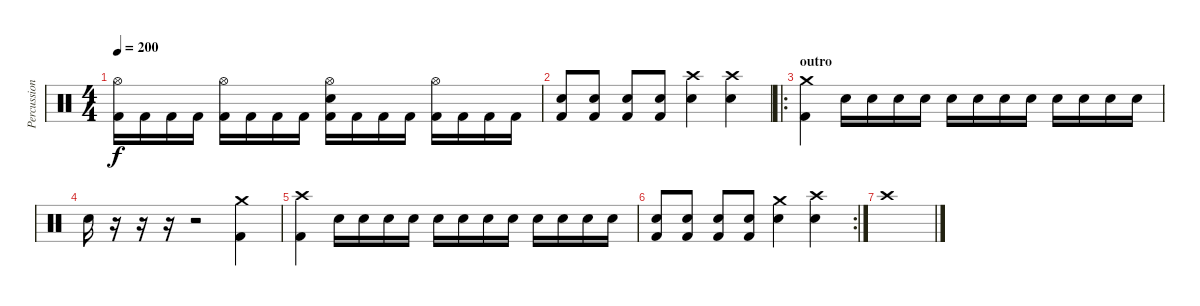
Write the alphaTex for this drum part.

\track ("Percussions" "Percussion") {instrument percussion}
\staff {score}
\articulation defaults
\ts (4 4)
\tempo 200
\clef neutral
\ks c
("Hi-Hat (open)" "Kick (hit) 2").16{dy f} "Kick (hit) 2".16 "Kick (hit) 2".16 "Kick (hit) 2".16 ("Hi-Hat (open)" "Kick (hit) 2").16 "Kick (hit) 2".16 "Kick (hit) 2".16 "Kick (hit) 2".16 ("Hi-Hat (open)" "Electric Snare (hit)" "Kick (hit) 2").16 "Kick (hit) 2".16 "Kick (hit) 2".16 "Kick (hit) 2".16 ("Hi-Hat (open)" "Kick (hit) 2").16 "Kick (hit) 2".16 "Kick (hit) 2".16 "Kick (hit) 2".16 |
("Electric Snare (hit)" "Kick (hit) 2").8 ("Electric Snare (hit)" "Kick (hit) 2").8 ("Electric Snare (hit)" "Kick (hit) 2").8 ("Electric Snare (hit)" "Kick (hit) 2").8 ("Crash high (hit)" "Electric Snare (hit)").4 ("Crash high (hit)" "Electric Snare (hit)").4 |
\ro
\section ("" "outro")
("Crash medium (hit)" "Kick (hit) 2").4 "Electric Snare (hit)".16 "Electric Snare (hit)".16 "Electric Snare (hit)".16 "Electric Snare (hit)".16 "Electric Snare (hit)".16 "Electric Snare (hit)".16 "Electric Snare (hit)".16 "Electric Snare (hit)".16 "Electric Snare (hit)".16 "Electric Snare (hit)".16 "Electric Snare (hit)".16 "Electric Snare (hit)".16 |
"Electric Snare (hit)".16 r.16 r.16 r.16 r.2 ("Crash medium (hit)" "Kick (hit) 2").4 |
("Crash high (hit)" "Kick (hit) 2").4 "Electric Snare (hit)".16 "Electric Snare (hit)".16 "Electric Snare (hit)".16 "Electric Snare (hit)".16 "Electric Snare (hit)".16 "Electric Snare (hit)".16 "Electric Snare (hit)".16 "Electric Snare (hit)".16 "Electric Snare (hit)".16 "Electric Snare (hit)".16 "Electric Snare (hit)".16 "Electric Snare (hit)".16 |
\rc 2
("Electric Snare (hit)" "Kick (hit) 2").8 ("Electric Snare (hit)" "Kick (hit) 2").8 ("Electric Snare (hit)" "Kick (hit) 2").8 ("Electric Snare (hit)" "Kick (hit) 2").8 ("Crash medium (hit)" "Electric Snare (hit)").4 ("Crash high (hit)" "Electric Snare (hit)").4 |
"Crash high (hit)".1
